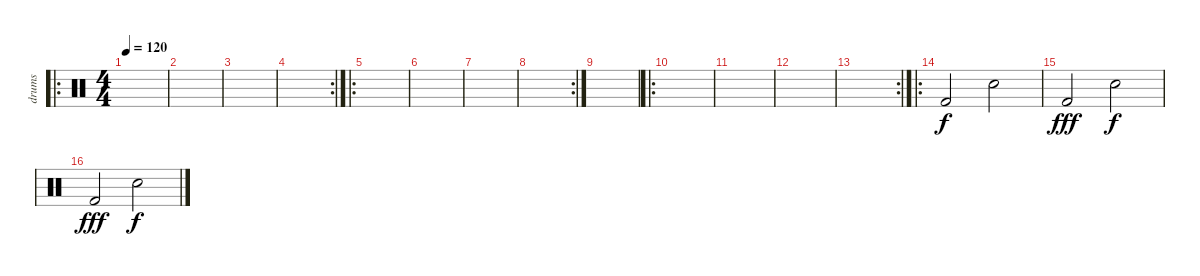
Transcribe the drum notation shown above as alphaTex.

\track ("drums" "drums") {instrument percussion}
\staff {score}
\articulation defaults
\ro
\ts (4 4)
\tempo 120
\clef neutral
\ks c
|
|
|
\rc 2
|
\ro
|
|
|
\rc 2
|
|
\ro
|
|
|
\rc 2
|
\ro "Kick (hit) 2".2 "Electric Snare (hit)".2{dy f}
|
"Kick (hit) 2".2{dy fff} "Electric Snare (hit)".2{dy f} |
"Kick (hit) 2".2{dy fff} "Electric Snare (hit)".2{dy f}
